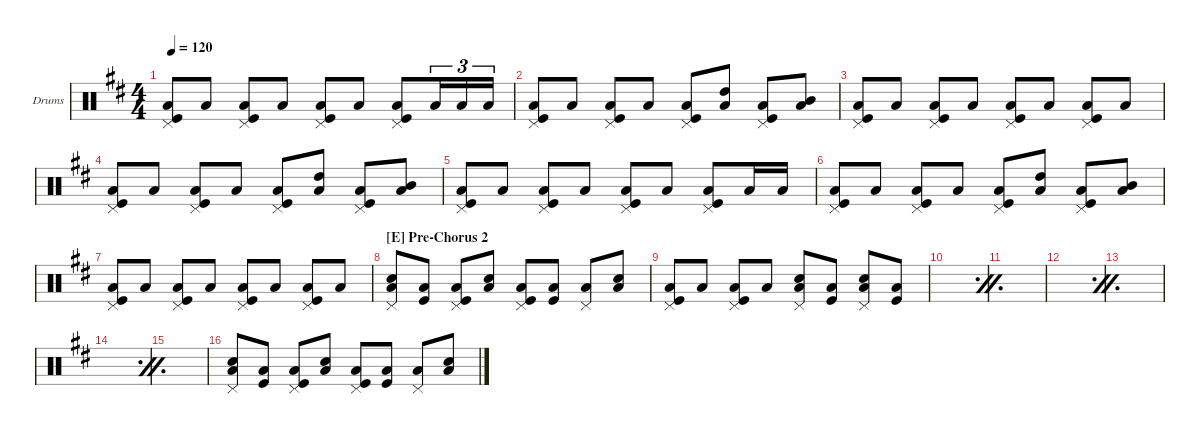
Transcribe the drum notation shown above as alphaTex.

\hideDynamics
\bracketExtendMode nobrackets
\firstSystemTrackNameOrientation horizontal
\otherSystemsTrackNameOrientation horizontal
\track ("Drums" "Drums") {instrument percussion}
\staff {score}
\articulation defaults
\ts (4 4)
\tempo 120
\clef neutral
\ks bminor
("Kick (hit)" "Pedal Hi-Hat (hit)" "Low Tom (hit)").8{dy f} "Low Tom (hit)".8 ("Kick (hit)" "Pedal Hi-Hat (hit)" "Low Tom (hit)").8 "Low Tom (hit)".8 ("Kick (hit)" "Pedal Hi-Hat (hit)" "Low Tom (hit)").8 "Low Tom (hit)".8 ("Kick (hit)" "Pedal Hi-Hat (hit)" "Low Tom (hit)").8{beam merge} "Low Tom (hit)".16{tu (3 2) beam merge} "Low Tom (hit)".16{tu (3 2) beam merge} "Low Tom (hit)".16{tu (3 2)} |
("Pedal Hi-Hat (hit)" "Kick (hit)" "Low Tom (hit)").8{dy mf} "Low Tom (hit)".8 ("Pedal Hi-Hat (hit)" "Kick (hit)" "Low Tom (hit)").8 "Low Tom (hit)".8 ("Pedal Hi-Hat (hit)" "Kick (hit)" "Low Tom (hit)").8 ("Low Tom (hit)" "High Tom (hit)").8 ("Pedal Hi-Hat (hit)" "Kick (hit)" "Low Tom (hit)").8 ("Low Tom (hit)" "Mid Tom (hit)").8 |
("Pedal Hi-Hat (hit)" "Kick (hit)" "Low Tom (hit)").8 "Low Tom (hit)".8 ("Pedal Hi-Hat (hit)" "Kick (hit)" "Low Tom (hit)").8 "Low Tom (hit)".8 ("Pedal Hi-Hat (hit)" "Kick (hit)" "Low Tom (hit)").8 "Low Tom (hit)".8 ("Pedal Hi-Hat (hit)" "Kick (hit)" "Low Tom (hit)").8 "Low Tom (hit)".8 |
("Pedal Hi-Hat (hit)" "Kick (hit)" "Low Tom (hit)").8 "Low Tom (hit)".8 ("Pedal Hi-Hat (hit)" "Kick (hit)" "Low Tom (hit)").8 "Low Tom (hit)".8 ("Pedal Hi-Hat (hit)" "Kick (hit)" "Low Tom (hit)").8 ("Low Tom (hit)" "High Tom (hit)").8 ("Pedal Hi-Hat (hit)" "Kick (hit)" "Low Tom (hit)").8 ("Low Tom (hit)" "Mid Tom (hit)").8 |
("Kick (hit)" "Pedal Hi-Hat (hit)" "Low Tom (hit)").8 "Low Tom (hit)".8 ("Kick (hit)" "Pedal Hi-Hat (hit)" "Low Tom (hit)").8 "Low Tom (hit)".8 ("Kick (hit)" "Pedal Hi-Hat (hit)" "Low Tom (hit)").8 "Low Tom (hit)".8 ("Kick (hit)" "Pedal Hi-Hat (hit)" "Low Tom (hit)").8 "Low Tom (hit)".16 "Low Tom (hit)".16 |
("Pedal Hi-Hat (hit)" "Kick (hit)" "Low Tom (hit)").8 "Low Tom (hit)".8 ("Pedal Hi-Hat (hit)" "Kick (hit)" "Low Tom (hit)").8 "Low Tom (hit)".8 ("Pedal Hi-Hat (hit)" "Kick (hit)" "Low Tom (hit)").8 ("Low Tom (hit)" "High Tom (hit)").8 ("Pedal Hi-Hat (hit)" "Kick (hit)" "Low Tom (hit)").8 ("Low Tom (hit)" "Mid Tom (hit)").8 |
("Pedal Hi-Hat (hit)" "Kick (hit)" "Low Tom (hit)").8 "Low Tom (hit)".8 ("Pedal Hi-Hat (hit)" "Kick (hit)" "Low Tom (hit)").8 "Low Tom (hit)".8 ("Pedal Hi-Hat (hit)" "Kick (hit)" "Low Tom (hit)").8 "Low Tom (hit)".8 ("Pedal Hi-Hat (hit)" "Kick (hit)" "Low Tom (hit)").8 "Low Tom (hit)".8 |
\section ("E" "Pre-Chorus 2")
("Low Tom (hit)" "Snare (hit) 2" "Pedal Hi-Hat (hit)").8 ("Kick (hit)" "Low Tom (hit)").8 ("Kick (hit)" "Low Tom (hit)" "Pedal Hi-Hat (hit)").8 ("Low Tom (hit)" "Snare (hit) 2").8 ("Kick (hit)" "Low Tom (hit)" "Pedal Hi-Hat (hit)").8 ("Kick (hit)" "Low Tom (hit)").8 ("Low Tom (hit)" "Pedal Hi-Hat (hit)").8 ("Low Tom (hit)" "Snare (hit) 2").8 |
("Low Tom (hit)" "Kick (hit)" "Pedal Hi-Hat (hit)").8 "Low Tom (hit)".8 ("Kick (hit)" "Low Tom (hit)" "Pedal Hi-Hat (hit)").8 "Low Tom (hit)".8 ("Low Tom (hit)" "Snare (hit) 2" "Pedal Hi-Hat (hit)").8 ("Low Tom (hit)" "Kick (hit)").8 ("Low Tom (hit)" "Snare (hit) 2" "Pedal Hi-Hat (hit)").8 ("Low Tom (hit)" "Kick (hit)").8 |
\simile firstofdouble
|
\simile secondofdouble
|
\simile firstofdouble
|
\simile secondofdouble
|
\simile firstofdouble
|
\simile secondofdouble
|
\simile none
("Low Tom (hit)" "Snare (hit) 2" "Pedal Hi-Hat (hit)").8 ("Kick (hit)" "Low Tom (hit)").8 ("Kick (hit)" "Low Tom (hit)" "Pedal Hi-Hat (hit)").8 ("Low Tom (hit)" "Snare (hit) 2").8 ("Kick (hit)" "Low Tom (hit)" "Pedal Hi-Hat (hit)").8 ("Kick (hit)" "Low Tom (hit)").8 ("Low Tom (hit)" "Pedal Hi-Hat (hit)").8 ("Low Tom (hit)" "Snare (hit) 2").8
